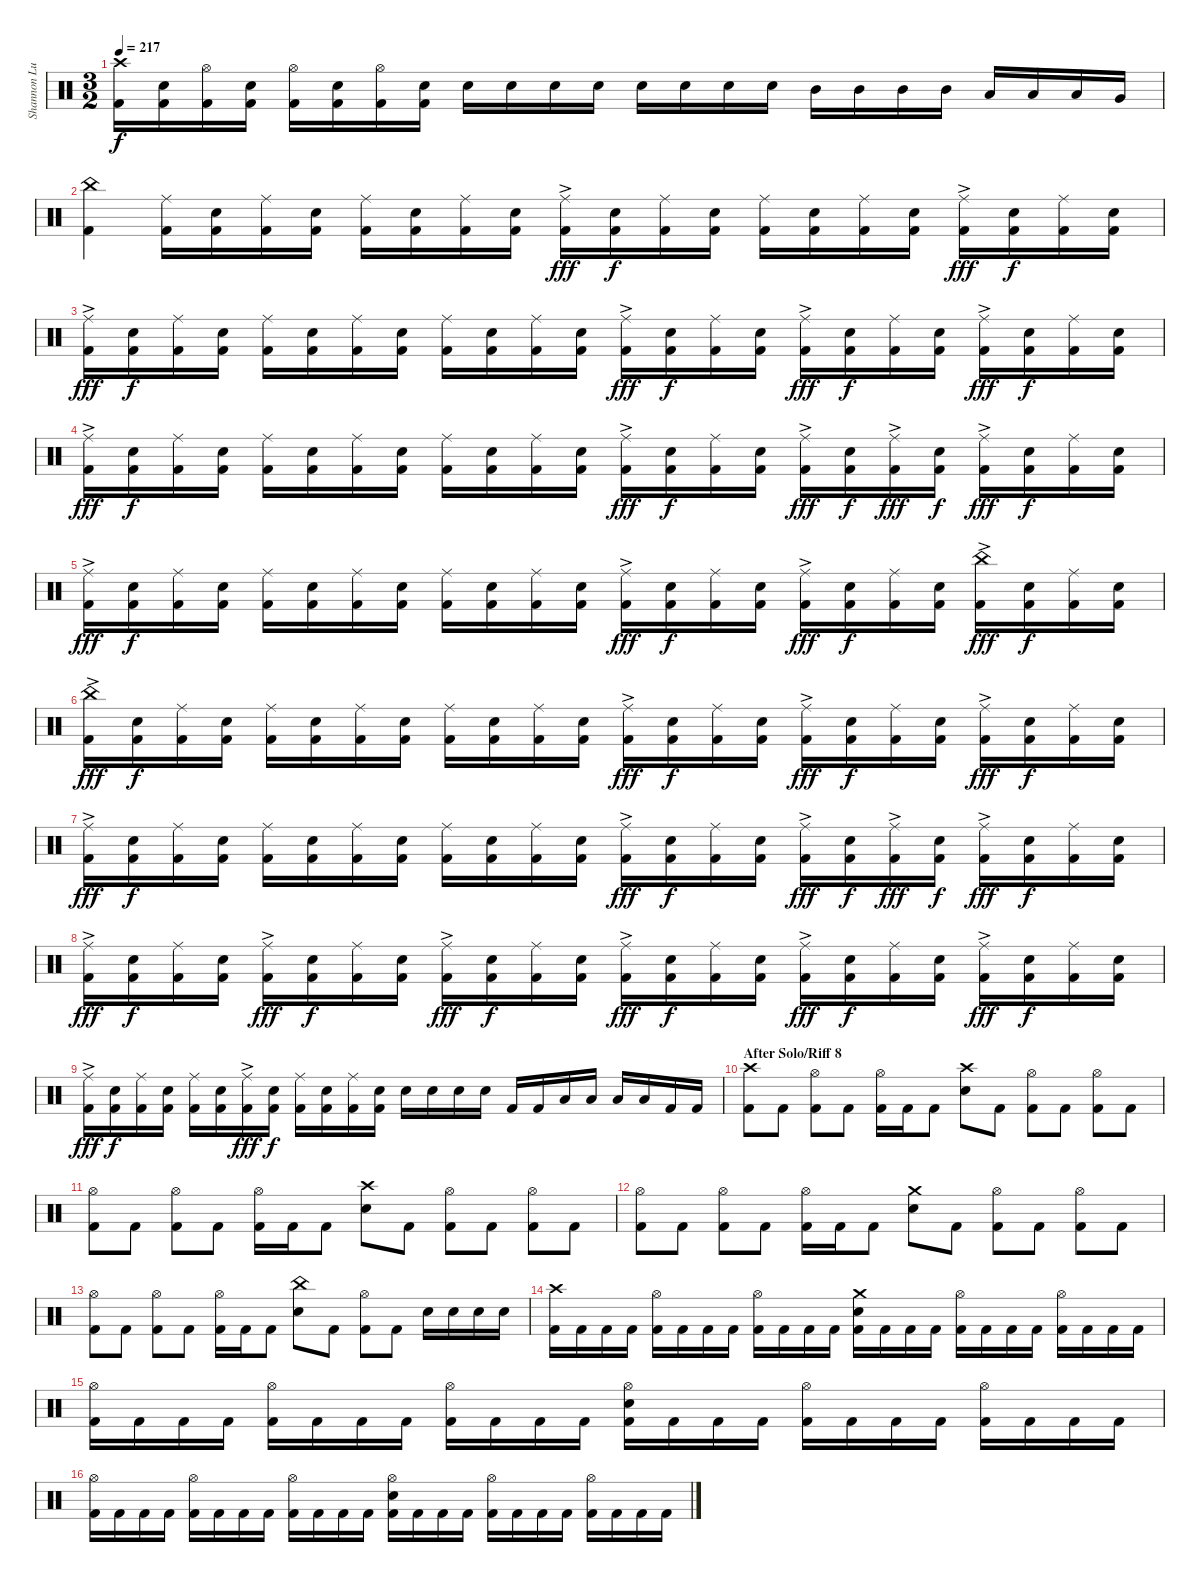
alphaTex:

\track ("Shannon Lucas (Drums)" "Shannon Lu") {instrument percussion}
\staff {score}
\articulation defaults
\ts (3 2)
\tempo 217
\clef neutral
\ks c
("Crash high (hit)" "Kick (hit) 2").16{dy f} ("Snare (hit) 2" "Kick (hit) 2").16 ("Hi-Hat (open)" "Kick (hit) 2").16 ("Snare (hit) 2" "Kick (hit) 2").16 ("Hi-Hat (open)" "Kick (hit) 2").16 ("Snare (hit) 2" "Kick (hit) 2").16 ("Hi-Hat (open)" "Kick (hit) 2").16 ("Kick (hit) 2" "Snare (hit) 2").16 "Snare (hit) 2".16 "Snare (hit) 2".16 "Snare (hit) 2".16 "Snare (hit) 2".16 "Snare (hit) 2".16 "Snare (hit) 2".16 "Snare (hit) 2".16 "Snare (hit) 2".16 "Mid Tom (hit)".16 "Mid Tom (hit)".16 "Mid Tom (hit)".16 "Mid Tom (hit)".16 "Low Tom (hit)".16 "Low Tom (hit)".16 "Low Tom (hit)".16 "Very Low Tom (hit)".16 |
("China (hit)" "Kick (hit) 2").4 ("Ride (middle)" "Kick (hit) 2").16 ("Snare (hit) 2" "Kick (hit) 2").16 ("Ride (middle)" "Kick (hit) 2").16 ("Snare (hit) 2" "Kick (hit) 2").16 ("Ride (middle)" "Kick (hit) 2").16 ("Snare (hit) 2" "Kick (hit) 2").16 ("Ride (middle)" "Kick (hit) 2").16 ("Snare (hit) 2" "Kick (hit) 2").16 ("Ride (middle)"{ac} "Kick (hit) 2").16{dy fff} ("Snare (hit) 2" "Kick (hit) 2").16{dy f} ("Ride (middle)" "Kick (hit) 2").16 ("Snare (hit) 2" "Kick (hit) 2").16 ("Ride (middle)" "Kick (hit) 2").16 ("Snare (hit) 2" "Kick (hit) 2").16 ("Ride (middle)" "Kick (hit) 2").16 ("Snare (hit) 2" "Kick (hit) 2").16 ("Ride (middle)"{ac} "Kick (hit) 2").16{dy fff} ("Snare (hit) 2" "Kick (hit) 2").16{dy f} ("Ride (middle)" "Kick (hit) 2").16 ("Snare (hit) 2" "Kick (hit) 2").16 |
("Ride (middle)"{ac} "Kick (hit) 2").16{dy fff} ("Snare (hit) 2" "Kick (hit) 2").16{dy f} ("Ride (middle)" "Kick (hit) 2").16 ("Snare (hit) 2" "Kick (hit) 2").16 ("Ride (middle)" "Kick (hit) 2").16 ("Snare (hit) 2" "Kick (hit) 2").16 ("Ride (middle)" "Kick (hit) 2").16 ("Snare (hit) 2" "Kick (hit) 2").16 ("Ride (middle)" "Kick (hit) 2").16 ("Snare (hit) 2" "Kick (hit) 2").16 ("Ride (middle)" "Kick (hit) 2").16 ("Snare (hit) 2" "Kick (hit) 2").16 ("Ride (middle)"{ac} "Kick (hit) 2").16{dy fff} ("Snare (hit) 2" "Kick (hit) 2").16{dy f} ("Ride (middle)" "Kick (hit) 2").16 ("Snare (hit) 2" "Kick (hit) 2").16 ("Ride (middle)"{ac} "Kick (hit) 2").16{dy fff} ("Snare (hit) 2" "Kick (hit) 2").16{dy f} ("Ride (middle)" "Kick (hit) 2").16 ("Snare (hit) 2" "Kick (hit) 2").16 ("Ride (middle)"{ac} "Kick (hit) 2").16{dy fff} ("Snare (hit) 2" "Kick (hit) 2").16{dy f} ("Ride (middle)" "Kick (hit) 2").16 ("Snare (hit) 2" "Kick (hit) 2").16 |
("Ride (middle)"{ac} "Kick (hit) 2").16{dy fff} ("Snare (hit) 2" "Kick (hit) 2").16{dy f} ("Ride (middle)" "Kick (hit) 2").16 ("Snare (hit) 2" "Kick (hit) 2").16 ("Ride (middle)" "Kick (hit) 2").16 ("Snare (hit) 2" "Kick (hit) 2").16 ("Ride (middle)" "Kick (hit) 2").16 ("Snare (hit) 2" "Kick (hit) 2").16 ("Ride (middle)" "Kick (hit) 2").16 ("Snare (hit) 2" "Kick (hit) 2").16 ("Ride (middle)" "Kick (hit) 2").16 ("Snare (hit) 2" "Kick (hit) 2").16 ("Ride (middle)"{ac} "Kick (hit) 2").16{dy fff} ("Snare (hit) 2" "Kick (hit) 2").16{dy f} ("Ride (middle)" "Kick (hit) 2").16 ("Snare (hit) 2" "Kick (hit) 2").16 ("Ride (middle)"{ac} "Kick (hit) 2").16{dy fff} ("Snare (hit) 2" "Kick (hit) 2").16{dy f} ("Ride (middle)"{ac} "Kick (hit) 2").16{dy fff} ("Snare (hit) 2" "Kick (hit) 2").16{dy f} ("Ride (middle)"{ac} "Kick (hit) 2").16{dy fff} ("Snare (hit) 2" "Kick (hit) 2").16{dy f} ("Ride (middle)" "Kick (hit) 2").16 ("Snare (hit) 2" "Kick (hit) 2").16 |
("Ride (middle)"{ac} "Kick (hit) 2").16{dy fff} ("Snare (hit) 2" "Kick (hit) 2").16{dy f} ("Ride (middle)" "Kick (hit) 2").16 ("Snare (hit) 2" "Kick (hit) 2").16 ("Ride (middle)" "Kick (hit) 2").16 ("Snare (hit) 2" "Kick (hit) 2").16 ("Ride (middle)" "Kick (hit) 2").16 ("Snare (hit) 2" "Kick (hit) 2").16 ("Ride (middle)" "Kick (hit) 2").16 ("Snare (hit) 2" "Kick (hit) 2").16 ("Ride (middle)" "Kick (hit) 2").16 ("Snare (hit) 2" "Kick (hit) 2").16 ("Ride (middle)"{ac} "Kick (hit) 2").16{dy fff} ("Snare (hit) 2" "Kick (hit) 2").16{dy f} ("Ride (middle)" "Kick (hit) 2").16 ("Snare (hit) 2" "Kick (hit) 2").16 ("Ride (middle)"{ac} "Kick (hit) 2").16{dy fff} ("Snare (hit) 2" "Kick (hit) 2").16{dy f} ("Ride (middle)" "Kick (hit) 2").16 ("Snare (hit) 2" "Kick (hit) 2").16 ("China (hit)"{ac} "Kick (hit) 2").16{dy fff} ("Snare (hit) 2" "Kick (hit) 2").16{dy f} ("Ride (middle)" "Kick (hit) 2").16 ("Snare (hit) 2" "Kick (hit) 2").16 |
("China (hit)"{ac} "Kick (hit) 2").16{dy fff} ("Snare (hit) 2" "Kick (hit) 2").16{dy f} ("Ride (middle)" "Kick (hit) 2").16 ("Snare (hit) 2" "Kick (hit) 2").16 ("Ride (middle)" "Kick (hit) 2").16 ("Snare (hit) 2" "Kick (hit) 2").16 ("Ride (middle)" "Kick (hit) 2").16 ("Snare (hit) 2" "Kick (hit) 2").16 ("Ride (middle)" "Kick (hit) 2").16 ("Snare (hit) 2" "Kick (hit) 2").16 ("Ride (middle)" "Kick (hit) 2").16 ("Snare (hit) 2" "Kick (hit) 2").16 ("Ride (middle)"{ac} "Kick (hit) 2").16{dy fff} ("Snare (hit) 2" "Kick (hit) 2").16{dy f} ("Ride (middle)" "Kick (hit) 2").16 ("Snare (hit) 2" "Kick (hit) 2").16 ("Ride (middle)"{ac} "Kick (hit) 2").16{dy fff} ("Snare (hit) 2" "Kick (hit) 2").16{dy f} ("Ride (middle)" "Kick (hit) 2").16 ("Snare (hit) 2" "Kick (hit) 2").16 ("Ride (middle)"{ac} "Kick (hit) 2").16{dy fff} ("Snare (hit) 2" "Kick (hit) 2").16{dy f} ("Ride (middle)" "Kick (hit) 2").16 ("Snare (hit) 2" "Kick (hit) 2").16 |
("Ride (middle)"{ac} "Kick (hit) 2").16{dy fff} ("Snare (hit) 2" "Kick (hit) 2").16{dy f} ("Ride (middle)" "Kick (hit) 2").16 ("Snare (hit) 2" "Kick (hit) 2").16 ("Ride (middle)" "Kick (hit) 2").16 ("Snare (hit) 2" "Kick (hit) 2").16 ("Ride (middle)" "Kick (hit) 2").16 ("Snare (hit) 2" "Kick (hit) 2").16 ("Ride (middle)" "Kick (hit) 2").16 ("Snare (hit) 2" "Kick (hit) 2").16 ("Ride (middle)" "Kick (hit) 2").16 ("Snare (hit) 2" "Kick (hit) 2").16 ("Ride (middle)"{ac} "Kick (hit) 2").16{dy fff} ("Snare (hit) 2" "Kick (hit) 2").16{dy f} ("Ride (middle)" "Kick (hit) 2").16 ("Snare (hit) 2" "Kick (hit) 2").16 ("Ride (middle)"{ac} "Kick (hit) 2").16{dy fff} ("Snare (hit) 2" "Kick (hit) 2").16{dy f} ("Ride (middle)"{ac} "Kick (hit) 2").16{dy fff} ("Snare (hit) 2" "Kick (hit) 2").16{dy f} ("Ride (middle)"{ac} "Kick (hit) 2").16{dy fff} ("Snare (hit) 2" "Kick (hit) 2").16{dy f} ("Ride (middle)" "Kick (hit) 2").16 ("Snare (hit) 2" "Kick (hit) 2").16 |
("Ride (middle)"{ac} "Kick (hit) 2").16{dy fff} ("Snare (hit) 2" "Kick (hit) 2").16{dy f} ("Ride (middle)" "Kick (hit) 2").16 ("Snare (hit) 2" "Kick (hit) 2").16 ("Ride (middle)"{ac} "Kick (hit) 2").16{dy fff} ("Snare (hit) 2" "Kick (hit) 2").16{dy f} ("Ride (middle)" "Kick (hit) 2").16 ("Snare (hit) 2" "Kick (hit) 2").16 ("Ride (middle)"{ac} "Kick (hit) 2").16{dy fff} ("Snare (hit) 2" "Kick (hit) 2").16{dy f} ("Ride (middle)" "Kick (hit) 2").16 ("Snare (hit) 2" "Kick (hit) 2").16 ("Ride (middle)"{ac} "Kick (hit) 2").16{dy fff} ("Snare (hit) 2" "Kick (hit) 2").16{dy f} ("Ride (middle)" "Kick (hit) 2").16 ("Snare (hit) 2" "Kick (hit) 2").16 ("Ride (middle)"{ac} "Kick (hit) 2").16{dy fff} ("Snare (hit) 2" "Kick (hit) 2").16{dy f} ("Ride (middle)" "Kick (hit) 2").16 ("Snare (hit) 2" "Kick (hit) 2").16 ("Ride (middle)"{ac} "Kick (hit) 2").16{dy fff} ("Snare (hit) 2" "Kick (hit) 2").16{dy f} ("Ride (middle)" "Kick (hit) 2").16 ("Snare (hit) 2" "Kick (hit) 2").16 |
("Ride (middle)"{ac} "Kick (hit) 2").16{dy fff} ("Snare (hit) 2" "Kick (hit) 2").16{dy f} ("Ride (middle)" "Kick (hit) 2").16 ("Snare (hit) 2" "Kick (hit) 2").16 ("Ride (middle)" "Kick (hit) 2").16 ("Snare (hit) 2" "Kick (hit) 2").16 ("Ride (middle)"{ac} "Kick (hit) 2").16{dy fff} ("Snare (hit) 2" "Kick (hit) 2").16{dy f} ("Ride (middle)" "Kick (hit) 2").16 ("Snare (hit) 2" "Kick (hit) 2").16 ("Ride (middle)" "Kick (hit) 2").16 ("Snare (hit) 2" "Kick (hit) 2").16 "Snare (hit) 2".16 "Snare (hit) 2".16 "Snare (hit) 2".16 "Snare (hit) 2".16 "Kick (hit) 2".16 "Kick (hit) 2".16 "Low Tom (hit)".16 "Low Tom (hit)".16 "Low Tom (hit)".16 "Low Tom (hit)".16 "Kick (hit) 2".16 "Kick (hit) 2".16 |
\section ("" "After Solo/Riff 8")
("Crash high (hit)" "Kick (hit) 2").8 "Kick (hit) 2".8 ("Hi-Hat (open)" "Kick (hit) 2").8 "Kick (hit) 2".8 ("Hi-Hat (open)" "Kick (hit) 2").16 "Kick (hit) 2".16 "Kick (hit) 2".8 ("Crash high (hit)" "Snare (hit) 2").8 "Kick (hit) 2".8 ("Hi-Hat (open)" "Kick (hit) 2").8 "Kick (hit) 2".8 ("Hi-Hat (open)" "Kick (hit) 2").8 "Kick (hit) 2".8 |
("Hi-Hat (open)" "Kick (hit) 2").8 "Kick (hit) 2".8 ("Hi-Hat (open)" "Kick (hit) 2").8 "Kick (hit) 2".8 ("Hi-Hat (open)" "Kick (hit) 2").16 "Kick (hit) 2".16 "Kick (hit) 2".8 ("Crash high (hit)" "Snare (hit) 2").8 "Kick (hit) 2".8 ("Hi-Hat (open)" "Kick (hit) 2").8 "Kick (hit) 2".8 ("Hi-Hat (open)" "Kick (hit) 2").8 "Kick (hit) 2".8 |
("Hi-Hat (open)" "Kick (hit) 2").8 "Kick (hit) 2".8 ("Hi-Hat (open)" "Kick (hit) 2").8 "Kick (hit) 2".8 ("Hi-Hat (open)" "Kick (hit) 2").16 "Kick (hit) 2".16 "Kick (hit) 2".8 ("Crash medium (hit)" "Snare (hit) 2").8 "Kick (hit) 2".8 ("Hi-Hat (open)" "Kick (hit) 2").8 "Kick (hit) 2".8 ("Hi-Hat (open)" "Kick (hit) 2").8 "Kick (hit) 2".8 |
("Hi-Hat (open)" "Kick (hit) 2").8 "Kick (hit) 2".8 ("Hi-Hat (open)" "Kick (hit) 2").8 "Kick (hit) 2".8 ("Hi-Hat (open)" "Kick (hit) 2").16 "Kick (hit) 2".16 "Kick (hit) 2".8 ("China (hit)" "Snare (hit) 2").8 "Kick (hit) 2".8 ("Hi-Hat (open)" "Kick (hit) 2").8 "Kick (hit) 2".8 "Snare (hit) 2".16 "Snare (hit) 2".16 "Snare (hit) 2".16 "Snare (hit) 2".16 |
("Crash high (hit)" "Kick (hit) 2").16 "Kick (hit) 2".16 "Kick (hit) 2".16 "Kick (hit) 2".16 ("Hi-Hat (open)" "Kick (hit) 2").16 "Kick (hit) 2".16 "Kick (hit) 2".16 "Kick (hit) 2".16 ("Hi-Hat (open)" "Kick (hit) 2").16 "Kick (hit) 2".16 "Kick (hit) 2".16 "Kick (hit) 2".16 ("Crash medium (hit)" "Snare (hit) 2" "Kick (hit) 2").16 "Kick (hit) 2".16 "Kick (hit) 2".16 "Kick (hit) 2".16 ("Hi-Hat (open)" "Kick (hit) 2").16 "Kick (hit) 2".16 "Kick (hit) 2".16 "Kick (hit) 2".16 ("Hi-Hat (open)" "Kick (hit) 2").16 "Kick (hit) 2".16 "Kick (hit) 2".16 "Kick (hit) 2".16 |
("Hi-Hat (open)" "Kick (hit) 2").16 "Kick (hit) 2".16 "Kick (hit) 2".16 "Kick (hit) 2".16 ("Hi-Hat (open)" "Kick (hit) 2").16 "Kick (hit) 2".16 "Kick (hit) 2".16 "Kick (hit) 2".16 ("Hi-Hat (open)" "Kick (hit) 2").16 "Kick (hit) 2".16 "Kick (hit) 2".16 "Kick (hit) 2".16 ("Hi-Hat (open)" "Snare (hit) 2" "Kick (hit) 2").16 "Kick (hit) 2".16 "Kick (hit) 2".16 "Kick (hit) 2".16 ("Hi-Hat (open)" "Kick (hit) 2").16 "Kick (hit) 2".16 "Kick (hit) 2".16 "Kick (hit) 2".16 ("Hi-Hat (open)" "Kick (hit) 2").16 "Kick (hit) 2".16 "Kick (hit) 2".16 "Kick (hit) 2".16 |
("Hi-Hat (open)" "Kick (hit) 2").16 "Kick (hit) 2".16 "Kick (hit) 2".16 "Kick (hit) 2".16 ("Hi-Hat (open)" "Kick (hit) 2").16 "Kick (hit) 2".16 "Kick (hit) 2".16 "Kick (hit) 2".16 ("Hi-Hat (open)" "Kick (hit) 2").16 "Kick (hit) 2".16 "Kick (hit) 2".16 "Kick (hit) 2".16 ("Hi-Hat (open)" "Snare (hit) 2" "Kick (hit) 2").16 "Kick (hit) 2".16 "Kick (hit) 2".16 "Kick (hit) 2".16 ("Hi-Hat (open)" "Kick (hit) 2").16 "Kick (hit) 2".16 "Kick (hit) 2".16 "Kick (hit) 2".16 ("Hi-Hat (open)" "Kick (hit) 2").16 "Kick (hit) 2".16 "Kick (hit) 2".16 "Kick (hit) 2".16
